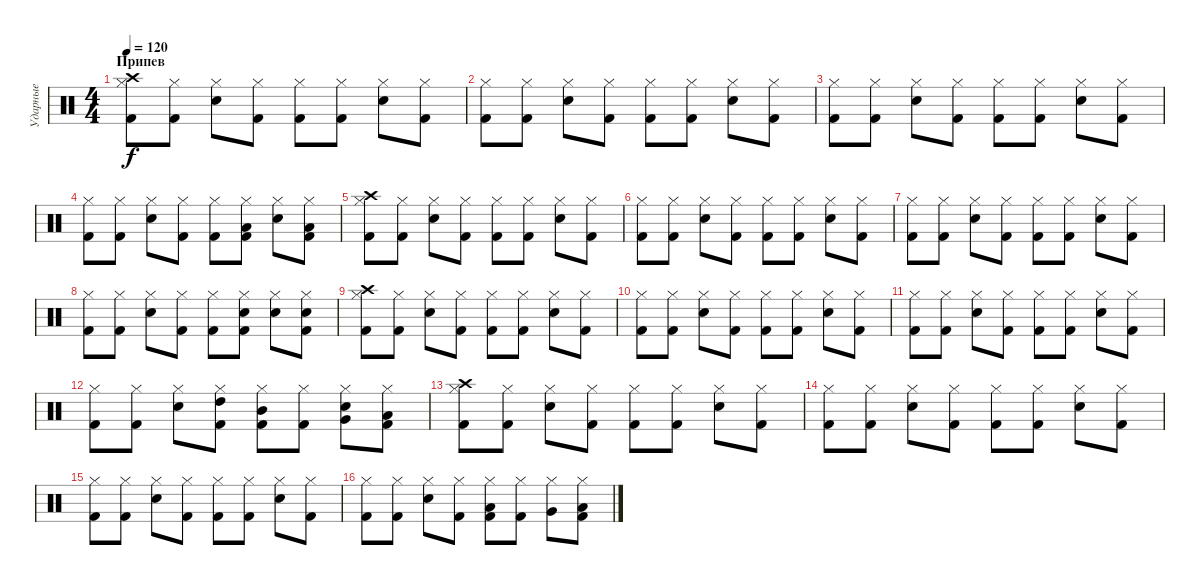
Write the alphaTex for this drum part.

\track ("Ударные" "Ударные") {instrument percussion}
\staff {score}
\articulation defaults
\ts (4 4)
\section ("" "Припев")
\tempo 120
\clef neutral
\ks c
("Kick (hit) 2" "Hi-Hat (closed)" "Crash high (hit)").8{dy f} ("Kick (hit) 2" "Hi-Hat (closed)").8 ("Snare (hit) 2" "Hi-Hat (closed)").8 ("Kick (hit) 2" "Hi-Hat (closed)").8 ("Kick (hit) 2" "Hi-Hat (closed)").8 ("Kick (hit) 2" "Hi-Hat (closed)").8 ("Snare (hit) 2" "Hi-Hat (closed)").8 ("Kick (hit) 2" "Hi-Hat (closed)").8 |
("Kick (hit) 2" "Hi-Hat (closed)").8 ("Kick (hit) 2" "Hi-Hat (closed)").8 ("Snare (hit) 2" "Hi-Hat (closed)").8 ("Kick (hit) 2" "Hi-Hat (closed)").8 ("Kick (hit) 2" "Hi-Hat (closed)").8 ("Kick (hit) 2" "Hi-Hat (closed)").8 ("Snare (hit) 2" "Hi-Hat (closed)").8 ("Kick (hit) 2" "Hi-Hat (closed)").8 |
("Kick (hit) 2" "Hi-Hat (closed)").8 ("Kick (hit) 2" "Hi-Hat (closed)").8 ("Snare (hit) 2" "Hi-Hat (closed)").8 ("Kick (hit) 2" "Hi-Hat (closed)").8 ("Kick (hit) 2" "Hi-Hat (closed)").8 ("Kick (hit) 2" "Hi-Hat (closed)").8 ("Snare (hit) 2" "Hi-Hat (closed)").8 ("Kick (hit) 2" "Hi-Hat (closed)").8 |
("Kick (hit) 2" "Hi-Hat (closed)").8 ("Kick (hit) 2" "Hi-Hat (closed)").8 ("Snare (hit) 2" "Hi-Hat (closed)").8 ("Kick (hit) 2" "Hi-Hat (closed)").8 ("Kick (hit) 2" "Hi-Hat (closed)").8 ("Kick (hit) 2" "Hi-Hat (closed)" "Low Tom (hit)").8 ("Snare (hit) 2" "Hi-Hat (closed)").8 ("Kick (hit) 2" "Hi-Hat (closed)" "Low Floor Tom (hit)").8 |
("Kick (hit) 2" "Hi-Hat (closed)" "Crash high (hit)").8 ("Kick (hit) 2" "Hi-Hat (closed)").8 ("Snare (hit) 2" "Hi-Hat (closed)").8 ("Kick (hit) 2" "Hi-Hat (closed)").8 ("Kick (hit) 2" "Hi-Hat (closed)").8 ("Kick (hit) 2" "Hi-Hat (closed)").8 ("Snare (hit) 2" "Hi-Hat (closed)").8 ("Kick (hit) 2" "Hi-Hat (closed)").8 |
("Kick (hit) 2" "Hi-Hat (closed)").8 ("Kick (hit) 2" "Hi-Hat (closed)").8 ("Snare (hit) 2" "Hi-Hat (closed)").8 ("Kick (hit) 2" "Hi-Hat (closed)").8 ("Kick (hit) 2" "Hi-Hat (closed)").8 ("Kick (hit) 2" "Hi-Hat (closed)").8 ("Snare (hit) 2" "Hi-Hat (closed)").8 ("Kick (hit) 2" "Hi-Hat (closed)").8 |
("Kick (hit) 2" "Hi-Hat (closed)").8 ("Kick (hit) 2" "Hi-Hat (closed)").8 ("Snare (hit) 2" "Hi-Hat (closed)").8 ("Kick (hit) 2" "Hi-Hat (closed)").8 ("Kick (hit) 2" "Hi-Hat (closed)").8 ("Kick (hit) 2" "Hi-Hat (closed)").8 ("Snare (hit) 2" "Hi-Hat (closed)").8 ("Kick (hit) 2" "Hi-Hat (closed)").8 |
("Kick (hit) 2" "Hi-Hat (closed)").8 ("Kick (hit) 2" "Hi-Hat (closed)").8 ("Snare (hit) 2" "Hi-Hat (closed)").8 ("Kick (hit) 2" "Hi-Hat (closed)").8 ("Kick (hit) 2" "Hi-Hat (closed)").8 ("Kick (hit) 2" "Hi-Hat (closed)" "Snare (hit) 2").8 ("Snare (hit) 2" "Hi-Hat (closed)").8 ("Kick (hit) 2" "Hi-Hat (closed)" "Snare (hit) 2").8 |
("Kick (hit) 2" "Hi-Hat (closed)" "Crash high (hit)").8 ("Kick (hit) 2" "Hi-Hat (closed)").8 ("Snare (hit) 2" "Hi-Hat (closed)").8 ("Kick (hit) 2" "Hi-Hat (closed)").8 ("Kick (hit) 2" "Hi-Hat (closed)").8 ("Kick (hit) 2" "Hi-Hat (closed)").8 ("Snare (hit) 2" "Hi-Hat (closed)").8 ("Kick (hit) 2" "Hi-Hat (closed)").8 |
("Kick (hit) 2" "Hi-Hat (closed)").8 ("Kick (hit) 2" "Hi-Hat (closed)").8 ("Snare (hit) 2" "Hi-Hat (closed)").8 ("Kick (hit) 2" "Hi-Hat (closed)").8 ("Kick (hit) 2" "Hi-Hat (closed)").8 ("Kick (hit) 2" "Hi-Hat (closed)").8 ("Snare (hit) 2" "Hi-Hat (closed)").8 ("Kick (hit) 2" "Hi-Hat (closed)").8 |
("Kick (hit) 2" "Hi-Hat (closed)").8 ("Kick (hit) 2" "Hi-Hat (closed)").8 ("Snare (hit) 2" "Hi-Hat (closed)").8 ("Kick (hit) 2" "Hi-Hat (closed)").8 ("Kick (hit) 2" "Hi-Hat (closed)").8 ("Kick (hit) 2" "Hi-Hat (closed)").8 ("Snare (hit) 2" "Hi-Hat (closed)").8 ("Kick (hit) 2" "Hi-Hat (closed)").8 |
("Kick (hit) 2" "Hi-Hat (closed)").8 ("Kick (hit) 2" "Hi-Hat (closed)").8 ("Snare (hit) 2" "Hi-Hat (closed)").8 ("Kick (hit) 2" "Hi-Hat (closed)" "High Tom (hit)").8 ("Kick (hit) 2" "Hi-Hat (closed)" "Mid Tom (hit)").8 ("Kick (hit) 2" "Hi-Hat (closed)").8 ("Snare (hit) 2" "Hi-Hat (closed)" "Very Low Tom (hit)").8 ("Kick (hit) 2" "Hi-Hat (closed)" "Low Floor Tom (hit)").8 |
("Kick (hit) 2" "Hi-Hat (closed)" "Crash high (hit)").8 ("Kick (hit) 2" "Hi-Hat (closed)").8 ("Snare (hit) 2" "Hi-Hat (closed)").8 ("Kick (hit) 2" "Hi-Hat (closed)").8 ("Kick (hit) 2" "Hi-Hat (closed)").8 ("Kick (hit) 2" "Hi-Hat (closed)").8 ("Snare (hit) 2" "Hi-Hat (closed)").8 ("Kick (hit) 2" "Hi-Hat (closed)").8 |
("Kick (hit) 2" "Hi-Hat (closed)").8 ("Kick (hit) 2" "Hi-Hat (closed)").8 ("Snare (hit) 2" "Hi-Hat (closed)").8 ("Kick (hit) 2" "Hi-Hat (closed)").8 ("Kick (hit) 2" "Hi-Hat (closed)").8 ("Kick (hit) 2" "Hi-Hat (closed)").8 ("Snare (hit) 2" "Hi-Hat (closed)").8 ("Kick (hit) 2" "Hi-Hat (closed)").8 |
("Kick (hit) 2" "Hi-Hat (closed)").8 ("Kick (hit) 2" "Hi-Hat (closed)").8 ("Snare (hit) 2" "Hi-Hat (closed)").8 ("Kick (hit) 2" "Hi-Hat (closed)").8 ("Kick (hit) 2" "Hi-Hat (closed)").8 ("Kick (hit) 2" "Hi-Hat (closed)").8 ("Snare (hit) 2" "Hi-Hat (closed)").8 ("Kick (hit) 2" "Hi-Hat (closed)").8 |
("Kick (hit) 2" "Hi-Hat (closed)").8 ("Kick (hit) 2" "Hi-Hat (closed)").8 ("Snare (hit) 2" "Hi-Hat (closed)").8 ("Kick (hit) 2" "Hi-Hat (closed)").8 ("Kick (hit) 2" "Hi-Hat (closed)" "Low Tom (hit)").8 ("Kick (hit) 2" "Hi-Hat (closed)").8 ("Very Low Tom (hit)" "Hi-Hat (closed)").8 ("Kick (hit) 2" "Hi-Hat (closed)" "Low Floor Tom (hit)").8
